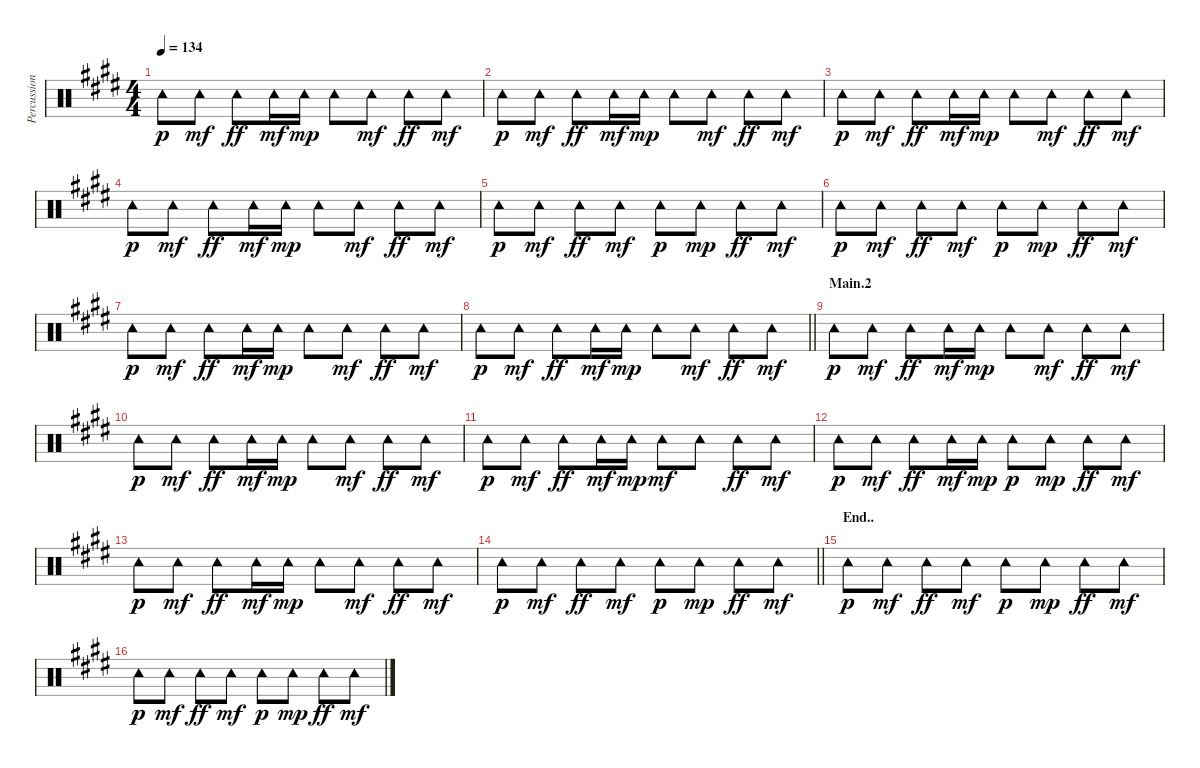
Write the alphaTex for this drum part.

\track ("Percussion" "Percussion") {instrument percussion}
\staff {score}
\articulation defaults
\ts (4 4)
\tempo 134
\clef neutral
\ks e "Tambourine (hit)".8{dy p} "Tambourine (hit)".8{dy mf} "Tambourine (hit)".8{dy ff} "Tambourine (hit)".16{dy mf} "Tambourine (hit)".16{dy mp} "Tambourine (hit)".8 "Tambourine (hit)".8{dy mf} "Tambourine (hit)".8{dy ff} "Tambourine (hit)".8{dy mf}
|
"Tambourine (hit)".8{dy p} "Tambourine (hit)".8{dy mf} "Tambourine (hit)".8{dy ff} "Tambourine (hit)".16{dy mf} "Tambourine (hit)".16{dy mp} "Tambourine (hit)".8 "Tambourine (hit)".8{dy mf} "Tambourine (hit)".8{dy ff} "Tambourine (hit)".8{dy mf} |
"Tambourine (hit)".8{dy p} "Tambourine (hit)".8{dy mf} "Tambourine (hit)".8{dy ff} "Tambourine (hit)".16{dy mf} "Tambourine (hit)".16{dy mp} "Tambourine (hit)".8 "Tambourine (hit)".8{dy mf} "Tambourine (hit)".8{dy ff} "Tambourine (hit)".8{dy mf} |
"Tambourine (hit)".8{dy p} "Tambourine (hit)".8{dy mf} "Tambourine (hit)".8{dy ff} "Tambourine (hit)".16{dy mf} "Tambourine (hit)".16{dy mp} "Tambourine (hit)".8 "Tambourine (hit)".8{dy mf} "Tambourine (hit)".8{dy ff} "Tambourine (hit)".8{dy mf} |
"Tambourine (hit)".8{dy p} "Tambourine (hit)".8{dy mf} "Tambourine (hit)".8{dy ff} "Tambourine (hit)".8{dy mf} "Tambourine (hit)".8{dy p} "Tambourine (hit)".8{dy mp} "Tambourine (hit)".8{dy ff} "Tambourine (hit)".8{dy mf} |
"Tambourine (hit)".8{dy p} "Tambourine (hit)".8{dy mf} "Tambourine (hit)".8{dy ff} "Tambourine (hit)".8{dy mf} "Tambourine (hit)".8{dy p} "Tambourine (hit)".8{dy mp} "Tambourine (hit)".8{dy ff} "Tambourine (hit)".8{dy mf} |
"Tambourine (hit)".8{dy p} "Tambourine (hit)".8{dy mf} "Tambourine (hit)".8{dy ff} "Tambourine (hit)".16{dy mf} "Tambourine (hit)".16{dy mp} "Tambourine (hit)".8 "Tambourine (hit)".8{dy mf} "Tambourine (hit)".8{dy ff} "Tambourine (hit)".8{dy mf} |
\barLineRight lightlight "Tambourine (hit)".8{dy p} "Tambourine (hit)".8{dy mf} "Tambourine (hit)".8{dy ff} "Tambourine (hit)".16{dy mf} "Tambourine (hit)".16{dy mp} "Tambourine (hit)".8 "Tambourine (hit)".8{dy mf} "Tambourine (hit)".8{dy ff} "Tambourine (hit)".8{dy mf}
|
\section ("" "Main.2")
"Tambourine (hit)".8{dy p} "Tambourine (hit)".8{dy mf} "Tambourine (hit)".8{dy ff} "Tambourine (hit)".16{dy mf} "Tambourine (hit)".16{dy mp} "Tambourine (hit)".8 "Tambourine (hit)".8{dy mf} "Tambourine (hit)".8{dy ff} "Tambourine (hit)".8{dy mf} |
"Tambourine (hit)".8{dy p} "Tambourine (hit)".8{dy mf} "Tambourine (hit)".8{dy ff} "Tambourine (hit)".16{dy mf} "Tambourine (hit)".16{dy mp} "Tambourine (hit)".8 "Tambourine (hit)".8{dy mf} "Tambourine (hit)".8{dy ff} "Tambourine (hit)".8{dy mf} |
"Tambourine (hit)".8{dy p} "Tambourine (hit)".8{dy mf} "Tambourine (hit)".8{dy ff} "Tambourine (hit)".16{dy mf} "Tambourine (hit)".16{dy mp} "Tambourine (hit)".8{dy mf} "Tambourine (hit)".8 "Tambourine (hit)".8{dy ff} "Tambourine (hit)".8{dy mf} |
"Tambourine (hit)".8{dy p} "Tambourine (hit)".8{dy mf} "Tambourine (hit)".8{dy ff} "Tambourine (hit)".16{dy mf} "Tambourine (hit)".16{dy mp} "Tambourine (hit)".8{dy p} "Tambourine (hit)".8{dy mp} "Tambourine (hit)".8{dy ff} "Tambourine (hit)".8{dy mf} |
"Tambourine (hit)".8{dy p} "Tambourine (hit)".8{dy mf} "Tambourine (hit)".8{dy ff} "Tambourine (hit)".16{dy mf} "Tambourine (hit)".16{dy mp} "Tambourine (hit)".8 "Tambourine (hit)".8{dy mf} "Tambourine (hit)".8{dy ff} "Tambourine (hit)".8{dy mf} |
\barLineRight lightlight "Tambourine (hit)".8{dy p} "Tambourine (hit)".8{dy mf} "Tambourine (hit)".8{dy ff} "Tambourine (hit)".8{dy mf} "Tambourine (hit)".8{dy p} "Tambourine (hit)".8{dy mp} "Tambourine (hit)".8{dy ff} "Tambourine (hit)".8{dy mf}
|
\section ("" "End..")
"Tambourine (hit)".8{dy p} "Tambourine (hit)".8{dy mf} "Tambourine (hit)".8{dy ff} "Tambourine (hit)".8{dy mf} "Tambourine (hit)".8{dy p} "Tambourine (hit)".8{dy mp} "Tambourine (hit)".8{dy ff} "Tambourine (hit)".8{dy mf} |
"Tambourine (hit)".8{dy p} "Tambourine (hit)".8{dy mf} "Tambourine (hit)".8{dy ff} "Tambourine (hit)".8{dy mf} "Tambourine (hit)".8{dy p} "Tambourine (hit)".8{dy mp} "Tambourine (hit)".8{dy ff} "Tambourine (hit)".8{dy mf}
